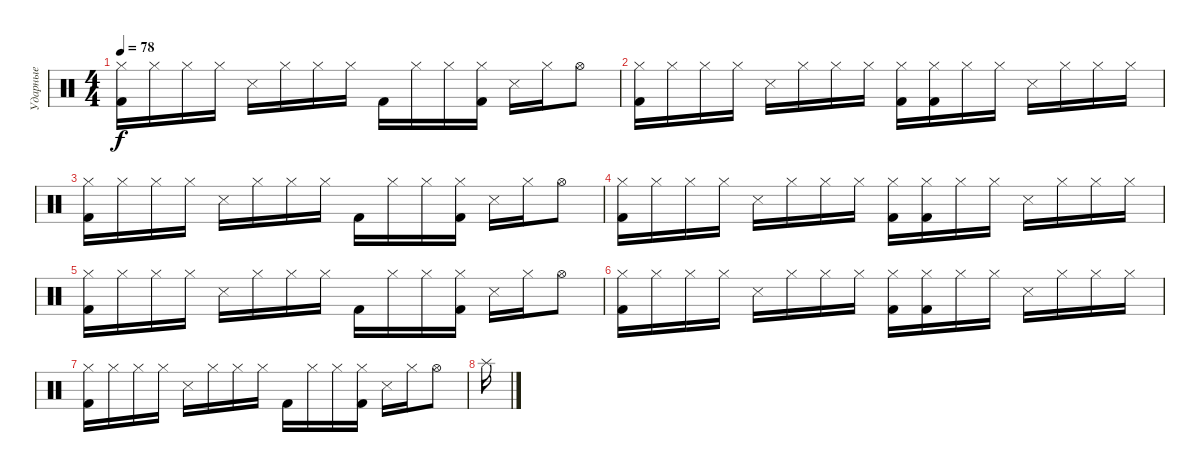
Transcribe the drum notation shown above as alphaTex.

\track ("Ударные" "Ударные") {instrument percussion}
\staff {score}
\articulation defaults
\ts (4 4)
\tempo 78
\clef neutral
\ks c
("Kick (hit) 2" "Hi-Hat (closed)").16{dy f} "Hi-Hat (closed)".16 "Hi-Hat (closed)".16 "Hi-Hat (closed)".16 "Snare (side stick) 3".16 "Hi-Hat (closed)".16 "Hi-Hat (closed)".16 "Hi-Hat (closed)".16 "Kick (hit) 2".16 "Hi-Hat (closed)".16 "Hi-Hat (closed)".16 ("Kick (hit) 2" "Hi-Hat (closed)").16 "Snare (side stick) 3".16 "Hi-Hat (closed)".16 "Hi-Hat (open)".8 |
("Hi-Hat (closed)" "Kick (hit) 2").16 "Hi-Hat (closed)".16 "Hi-Hat (closed)".16 "Hi-Hat (closed)".16 "Snare (side stick) 3".16 "Hi-Hat (closed)".16 "Hi-Hat (closed)".16 "Hi-Hat (closed)".16 ("Kick (hit) 2" "Hi-Hat (closed)").16 ("Hi-Hat (closed)" "Kick (hit) 2").16 "Hi-Hat (closed)".16 "Hi-Hat (closed)".16 "Snare (side stick) 3".16 "Hi-Hat (closed)".16 "Hi-Hat (closed)".16 "Hi-Hat (closed)".16 |
("Kick (hit) 2" "Hi-Hat (closed)").16 "Hi-Hat (closed)".16 "Hi-Hat (closed)".16 "Hi-Hat (closed)".16 "Snare (side stick) 3".16 "Hi-Hat (closed)".16 "Hi-Hat (closed)".16 "Hi-Hat (closed)".16 "Kick (hit) 2".16 "Hi-Hat (closed)".16 "Hi-Hat (closed)".16 ("Kick (hit) 2" "Hi-Hat (closed)").16 "Snare (side stick) 3".16 "Hi-Hat (closed)".16 "Hi-Hat (open)".8 |
("Hi-Hat (closed)" "Kick (hit) 2").16 "Hi-Hat (closed)".16 "Hi-Hat (closed)".16 "Hi-Hat (closed)".16 "Snare (side stick) 3".16 "Hi-Hat (closed)".16 "Hi-Hat (closed)".16 "Hi-Hat (closed)".16 ("Kick (hit) 2" "Hi-Hat (closed)").16 ("Hi-Hat (closed)" "Kick (hit) 2").16 "Hi-Hat (closed)".16 "Hi-Hat (closed)".16 "Snare (side stick) 3".16 "Hi-Hat (closed)".16 "Hi-Hat (closed)".16 "Hi-Hat (closed)".16 |
("Kick (hit) 2" "Hi-Hat (closed)").16 "Hi-Hat (closed)".16 "Hi-Hat (closed)".16 "Hi-Hat (closed)".16 "Snare (side stick) 3".16 "Hi-Hat (closed)".16 "Hi-Hat (closed)".16 "Hi-Hat (closed)".16 "Kick (hit) 2".16 "Hi-Hat (closed)".16 "Hi-Hat (closed)".16 ("Kick (hit) 2" "Hi-Hat (closed)").16 "Snare (side stick) 3".16 "Hi-Hat (closed)".16 "Hi-Hat (open)".8 |
("Hi-Hat (closed)" "Kick (hit) 2").16 "Hi-Hat (closed)".16 "Hi-Hat (closed)".16 "Hi-Hat (closed)".16 "Snare (side stick) 3".16 "Hi-Hat (closed)".16 "Hi-Hat (closed)".16 "Hi-Hat (closed)".16 ("Kick (hit) 2" "Hi-Hat (closed)").16 ("Hi-Hat (closed)" "Kick (hit) 2").16 "Hi-Hat (closed)".16 "Hi-Hat (closed)".16 "Snare (side stick) 3".16 "Hi-Hat (closed)".16 "Hi-Hat (closed)".16 "Hi-Hat (closed)".16 |
("Kick (hit) 2" "Hi-Hat (closed)").16 "Hi-Hat (closed)".16 "Hi-Hat (closed)".16 "Hi-Hat (closed)".16 "Snare (side stick) 3".16 "Hi-Hat (closed)".16 "Hi-Hat (closed)".16 "Hi-Hat (closed)".16 "Kick (hit) 2".16 "Hi-Hat (closed)".16 "Hi-Hat (closed)".16 ("Kick (hit) 2" "Hi-Hat (closed)").16 "Snare (side stick) 3".16 "Hi-Hat (closed)".16 "Hi-Hat (open)".8 |
"Splash (hit)".16
